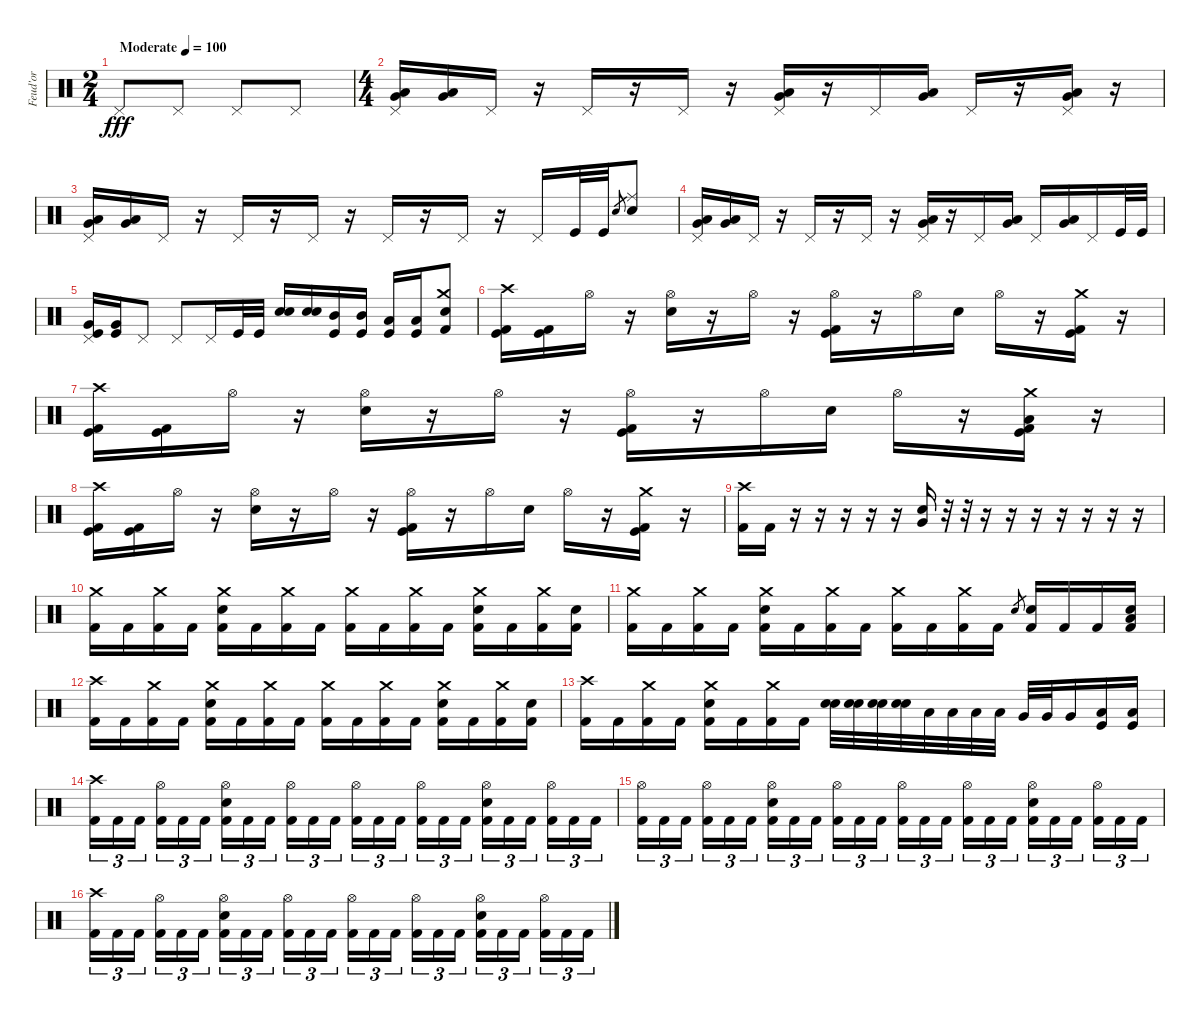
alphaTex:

\track ("Feud'or" "Feud'or") {instrument percussion}
\staff {score}
\articulation defaults
\ts (2 4)
\tempo (100 "Moderate")
\clef neutral
\ks c "Pedal Hi-Hat (hit)".8{dy fff} "Pedal Hi-Hat (hit)".8 "Pedal Hi-Hat (hit)".8 "Pedal Hi-Hat (hit)".8
|
\ts (4 4)
("Pedal Hi-Hat (hit)" "Low Tom (hit)" "Very Low Tom (hit)").16 ("Low Tom (hit)" "Very Low Tom (hit)").16 "Pedal Hi-Hat (hit)".16 r.16 "Pedal Hi-Hat (hit)".16 r.16 "Pedal Hi-Hat (hit)".16 r.16 ("Pedal Hi-Hat (hit)" "Low Tom (hit)" "Very Low Tom (hit)").16 r.16 "Pedal Hi-Hat (hit)".16 ("Low Tom (hit)" "Very Low Tom (hit)").16 "Pedal Hi-Hat (hit)".16 r.16 ("Pedal Hi-Hat (hit)" "Low Tom (hit)" "Very Low Tom (hit)").16 r.16 |
("Pedal Hi-Hat (hit)" "Low Tom (hit)" "Very Low Tom (hit)").16 ("Low Tom (hit)" "Very Low Tom (hit)").16 "Pedal Hi-Hat (hit)".16 r.16 "Pedal Hi-Hat (hit)".16 r.16 "Pedal Hi-Hat (hit)".16 r.16 "Pedal Hi-Hat (hit)".16 r.16 "Pedal Hi-Hat (hit)".16 r.16 "Pedal Hi-Hat (hit)".16 "Kick (hit)".32 "Kick (hit)".32 "Snare (hit) 2".8{gr} ("Ride (middle)" "Snare (hit) 2").8 |
("Pedal Hi-Hat (hit)" "Low Tom (hit)" "Very Low Tom (hit)").16 ("Low Tom (hit)" "Very Low Tom (hit)").16 "Pedal Hi-Hat (hit)".16 r.16 "Pedal Hi-Hat (hit)".16 r.16 "Pedal Hi-Hat (hit)".16 r.16 ("Pedal Hi-Hat (hit)" "Low Tom (hit)" "Very Low Tom (hit)").16 r.16 "Pedal Hi-Hat (hit)".16 ("Low Tom (hit)" "Very Low Tom (hit)").16 "Pedal Hi-Hat (hit)".16 ("Low Tom (hit)" "Very Low Tom (hit)").16 "Pedal Hi-Hat (hit)".16 "Kick (hit)".32 "Kick (hit)".32 |
("Pedal Hi-Hat (hit)" "Very Low Tom (hit)" "Kick (hit)").16 ("Very Low Tom (hit)" "Kick (hit)").16 "Pedal Hi-Hat (hit)".8 "Pedal Hi-Hat (hit)".8 "Pedal Hi-Hat (hit)".16 "Kick (hit)".32 "Kick (hit)".32 ("Electric Snare (hit)" "Snare (hit) 2").16 ("Electric Snare (hit)" "Snare (hit) 2").16 ("Mid Tom (hit)" "Kick (hit)").16 ("Mid Tom (hit)" "Kick (hit)").16 ("Low Tom (hit)" "Kick (hit)").16 ("Low Tom (hit)" "Kick (hit)").16 ("Crash medium (hit)" "Snare (hit) 2" "Kick (hit) 2").8 |
("Crash high (hit)" "Kick (hit)" "Kick (hit) 2").16 ("Kick (hit)" "Kick (hit) 2").16 "Hi-Hat (open)".16 r.16 ("Hi-Hat (open)" "Snare (hit) 2").16 r.16 "Hi-Hat (open)".16 r.16 ("Hi-Hat (open)" "Kick (hit)" "Kick (hit) 2").16 r.16 "Hi-Hat (open)".16 "Snare (hit) 2".16 "Hi-Hat (open)".16 r.16 ("Crash medium (hit)" "Kick (hit)" "Kick (hit) 2").16 r.16 |
("Crash high (hit)" "Kick (hit)" "Kick (hit) 2").16 ("Kick (hit)" "Kick (hit) 2").16 "Hi-Hat (open)".16 r.16 ("Hi-Hat (open)" "Snare (hit) 2").16 r.16 "Hi-Hat (open)".16 r.16 ("Hi-Hat (open)" "Kick (hit)" "Kick (hit) 2").16 r.16 "Hi-Hat (open)".16 "Snare (hit) 2".16 "Hi-Hat (open)".16 r.16 ("Crash medium (hit)" "Low Floor Tom (hit)" "Kick (hit)" "Kick (hit) 2").16 r.16 |
("Crash high (hit)" "Kick (hit)" "Kick (hit) 2").16 ("Kick (hit)" "Kick (hit) 2").16 "Hi-Hat (open)".16 r.16 ("Hi-Hat (open)" "Snare (hit) 2").16 r.16 "Hi-Hat (open)".16 r.16 ("Hi-Hat (open)" "Kick (hit)" "Kick (hit) 2").16 r.16 "Hi-Hat (open)".16 "Snare (hit) 2".16 "Hi-Hat (open)".16 r.16 ("Crash medium (hit)" "Kick (hit)" "Kick (hit) 2").16 r.16 |
("Crash high (hit)" "Kick (hit) 2").16 "Kick (hit) 2".16 r.16 r.16 r.16 r.16 r.16 ("Snare (hit) 2" "Very Low Tom (hit)").16 r.32 r.32 r.16 r.16 r.16 r.16 r.16 r.16 r.16 |
("Crash medium (hit)" "Kick (hit) 2").16 "Kick (hit) 2".16 ("Crash medium (hit)" "Kick (hit) 2").16 "Kick (hit) 2".16 ("Crash medium (hit)" "Snare (hit) 2" "Kick (hit) 2").16 "Kick (hit) 2".16 ("Crash medium (hit)" "Kick (hit) 2").16 "Kick (hit) 2".16 ("Crash medium (hit)" "Kick (hit) 2").16 "Kick (hit) 2".16 ("Crash medium (hit)" "Kick (hit) 2").16 "Kick (hit) 2".16 ("Crash medium (hit)" "Snare (hit) 2" "Kick (hit) 2").16 "Kick (hit) 2".16 ("Crash medium (hit)" "Kick (hit) 2").16 ("Snare (hit) 2" "Kick (hit) 2").16 |
("Crash medium (hit)" "Kick (hit) 2").16 "Kick (hit) 2".16 ("Crash medium (hit)" "Kick (hit) 2").16 "Kick (hit) 2".16 ("Crash medium (hit)" "Snare (hit) 2" "Kick (hit) 2").16 "Kick (hit) 2".16 ("Crash medium (hit)" "Kick (hit) 2").16 "Kick (hit) 2".16 ("Crash medium (hit)" "Kick (hit) 2").16 "Kick (hit) 2".16 ("Crash medium (hit)" "Kick (hit) 2").16 "Kick (hit) 2".16 "Snare (hit) 2".8{gr} ("Snare (hit) 2" "Kick (hit) 2").16 "Kick (hit) 2".16 "Kick (hit) 2".16 ("Low Floor Tom (hit)" "Snare (hit) 2" "Kick (hit) 2").16 |
("Crash high (hit)" "Kick (hit) 2").16 "Kick (hit) 2".16 ("Crash medium (hit)" "Kick (hit) 2").16 "Kick (hit) 2".16 ("Crash medium (hit)" "Snare (hit) 2" "Kick (hit) 2").16 "Kick (hit) 2".16 ("Crash medium (hit)" "Kick (hit) 2").16 "Kick (hit) 2".16 ("Crash medium (hit)" "Kick (hit) 2").16 "Kick (hit) 2".16 ("Crash medium (hit)" "Kick (hit) 2").16 "Kick (hit) 2".16 ("Crash medium (hit)" "Snare (hit) 2" "Kick (hit) 2").16 "Kick (hit) 2".16 ("Crash medium (hit)" "Kick (hit) 2").16 ("Snare (hit) 2" "Kick (hit) 2").16 |
("Crash high (hit)" "Kick (hit) 2").16 "Kick (hit) 2".16 ("Crash medium (hit)" "Kick (hit) 2").16 "Kick (hit) 2".16 ("Crash medium (hit)" "Snare (hit) 2" "Kick (hit) 2").16 "Kick (hit) 2".16 ("Crash medium (hit)" "Kick (hit) 2").16 "Kick (hit) 2".16 ("Electric Snare (hit)" "Snare (hit) 2").32 ("Electric Snare (hit)" "Snare (hit) 2").32 ("Electric Snare (hit)" "Snare (hit) 2").32 ("Electric Snare (hit)" "Snare (hit) 2").32 "Low Tom (hit)".32 "Low Tom (hit)".32 "Low Tom (hit)".32 "Low Tom (hit)".32 "Very Low Tom (hit)".32 "Very Low Tom (hit)".32 "Very Low Tom (hit)".16 ("Low Floor Tom (hit)" "Kick (hit)").16 ("Low Floor Tom (hit)" "Kick (hit)").16 |
("Crash high (hit)" "Kick (hit) 2").16{tu (3 2)} "Kick (hit) 2".16{tu (3 2)} "Kick (hit) 2".16{tu (3 2) beam splitsecondary} ("Hi-Hat (open)" "Kick (hit) 2").16{tu (3 2)} "Kick (hit) 2".16{tu (3 2)} "Kick (hit) 2".16{tu (3 2)} ("Hi-Hat (open)" "Snare (hit) 2" "Kick (hit) 2").16{tu (3 2)} "Kick (hit) 2".16{tu (3 2)} "Kick (hit) 2".16{tu (3 2) beam splitsecondary} ("Hi-Hat (open)" "Kick (hit) 2").16{tu (3 2)} "Kick (hit) 2".16{tu (3 2)} "Kick (hit) 2".16{tu (3 2)} ("Hi-Hat (open)" "Kick (hit) 2").16{tu (3 2)} "Kick (hit) 2".16{tu (3 2)} "Kick (hit) 2".16{tu (3 2) beam splitsecondary} ("Hi-Hat (open)" "Kick (hit) 2").16{tu (3 2)} "Kick (hit) 2".16{tu (3 2)} "Kick (hit) 2".16{tu (3 2)} ("Hi-Hat (open)" "Snare (hit) 2" "Kick (hit) 2").16{tu (3 2)} "Kick (hit) 2".16{tu (3 2)} "Kick (hit) 2".16{tu (3 2) beam splitsecondary} ("Hi-Hat (open)" "Kick (hit) 2").16{tu (3 2)} "Kick (hit) 2".16{tu (3 2)} "Kick (hit) 2".16{tu (3 2)} |
("Hi-Hat (open)" "Kick (hit) 2").16{tu (3 2)} "Kick (hit) 2".16{tu (3 2)} "Kick (hit) 2".16{tu (3 2) beam splitsecondary} ("Hi-Hat (open)" "Kick (hit) 2").16{tu (3 2)} "Kick (hit) 2".16{tu (3 2)} "Kick (hit) 2".16{tu (3 2)} ("Hi-Hat (open)" "Snare (hit) 2" "Kick (hit) 2").16{tu (3 2)} "Kick (hit) 2".16{tu (3 2)} "Kick (hit) 2".16{tu (3 2) beam splitsecondary} ("Hi-Hat (open)" "Kick (hit) 2").16{tu (3 2)} "Kick (hit) 2".16{tu (3 2)} "Kick (hit) 2".16{tu (3 2)} ("Hi-Hat (open)" "Kick (hit) 2").16{tu (3 2)} "Kick (hit) 2".16{tu (3 2)} "Kick (hit) 2".16{tu (3 2) beam splitsecondary} ("Hi-Hat (open)" "Kick (hit) 2").16{tu (3 2)} "Kick (hit) 2".16{tu (3 2)} "Kick (hit) 2".16{tu (3 2)} ("Hi-Hat (open)" "Snare (hit) 2" "Kick (hit) 2").16{tu (3 2)} "Kick (hit) 2".16{tu (3 2)} "Kick (hit) 2".16{tu (3 2) beam splitsecondary} ("Hi-Hat (open)" "Kick (hit) 2").16{tu (3 2)} "Kick (hit) 2".16{tu (3 2)} "Kick (hit) 2".16{tu (3 2)} |
("Crash high (hit)" "Kick (hit) 2").16{tu (3 2)} "Kick (hit) 2".16{tu (3 2)} "Kick (hit) 2".16{tu (3 2) beam splitsecondary} ("Hi-Hat (open)" "Kick (hit) 2").16{tu (3 2)} "Kick (hit) 2".16{tu (3 2)} "Kick (hit) 2".16{tu (3 2)} ("Hi-Hat (open)" "Snare (hit) 2" "Kick (hit) 2").16{tu (3 2)} "Kick (hit) 2".16{tu (3 2)} "Kick (hit) 2".16{tu (3 2) beam splitsecondary} ("Hi-Hat (open)" "Kick (hit) 2").16{tu (3 2)} "Kick (hit) 2".16{tu (3 2)} "Kick (hit) 2".16{tu (3 2)} ("Hi-Hat (open)" "Kick (hit) 2").16{tu (3 2)} "Kick (hit) 2".16{tu (3 2)} "Kick (hit) 2".16{tu (3 2) beam splitsecondary} ("Hi-Hat (open)" "Kick (hit) 2").16{tu (3 2)} "Kick (hit) 2".16{tu (3 2)} "Kick (hit) 2".16{tu (3 2)} ("Hi-Hat (open)" "Snare (hit) 2" "Kick (hit) 2").16{tu (3 2)} "Kick (hit) 2".16{tu (3 2)} "Kick (hit) 2".16{tu (3 2) beam splitsecondary} ("Hi-Hat (open)" "Kick (hit) 2").16{tu (3 2)} "Kick (hit) 2".16{tu (3 2)} "Kick (hit) 2".16{tu (3 2)}
